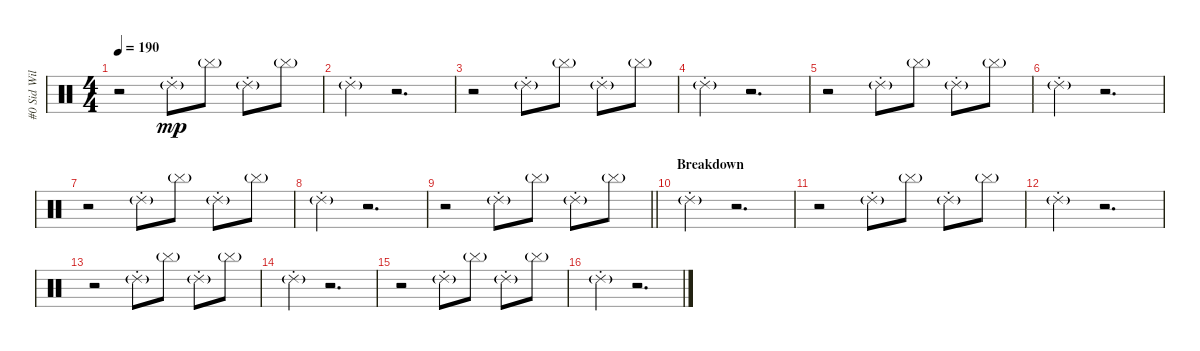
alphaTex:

\track ("#0 Sid Wilson" "#0 Sid Wil") {instrument percussion}
\staff {score}
\articulation defaults
\ts (4 4)
\tempo 190
\clef neutral
\ks c
r.2{dy mp} "Ride (choke) 2"{g}.8 "Cymbal (hit)"{g}.8 "Ride (choke) 2"{g}.8 "Cymbal (hit)"{g}.8 |
"Ride (choke) 2"{g}.4 r.2{d} |
r.2 "Ride (choke) 2"{g}.8 "Cymbal (hit)"{g}.8 "Ride (choke) 2"{g}.8 "Cymbal (hit)"{g}.8 |
"Ride (choke) 2"{g}.4 r.2{d} |
r.2 "Ride (choke) 2"{g}.8 "Cymbal (hit)"{g}.8 "Ride (choke) 2"{g}.8 "Cymbal (hit)"{g}.8 |
"Ride (choke) 2"{g}.4 r.2{d} |
r.2 "Ride (choke) 2"{g}.8 "Cymbal (hit)"{g}.8 "Ride (choke) 2"{g}.8 "Cymbal (hit)"{g}.8 |
"Ride (choke) 2"{g}.4 r.2{d} |
\barLineRight lightlight
r.2 "Ride (choke) 2"{g}.8 "Cymbal (hit)"{g}.8 "Ride (choke) 2"{g}.8 "Cymbal (hit)"{g}.8 |
\section ("" "Breakdown")
"Ride (choke) 2"{g}.4 r.2{d} |
r.2 "Ride (choke) 2"{g}.8 "Cymbal (hit)"{g}.8 "Ride (choke) 2"{g}.8 "Cymbal (hit)"{g}.8 |
"Ride (choke) 2"{g}.4 r.2{d} |
r.2 "Ride (choke) 2"{g}.8 "Cymbal (hit)"{g}.8 "Ride (choke) 2"{g}.8 "Cymbal (hit)"{g}.8 |
"Ride (choke) 2"{g}.4 r.2{d} |
r.2 "Ride (choke) 2"{g}.8 "Cymbal (hit)"{g}.8 "Ride (choke) 2"{g}.8 "Cymbal (hit)"{g}.8 |
"Ride (choke) 2"{g}.4 r.2{d}
